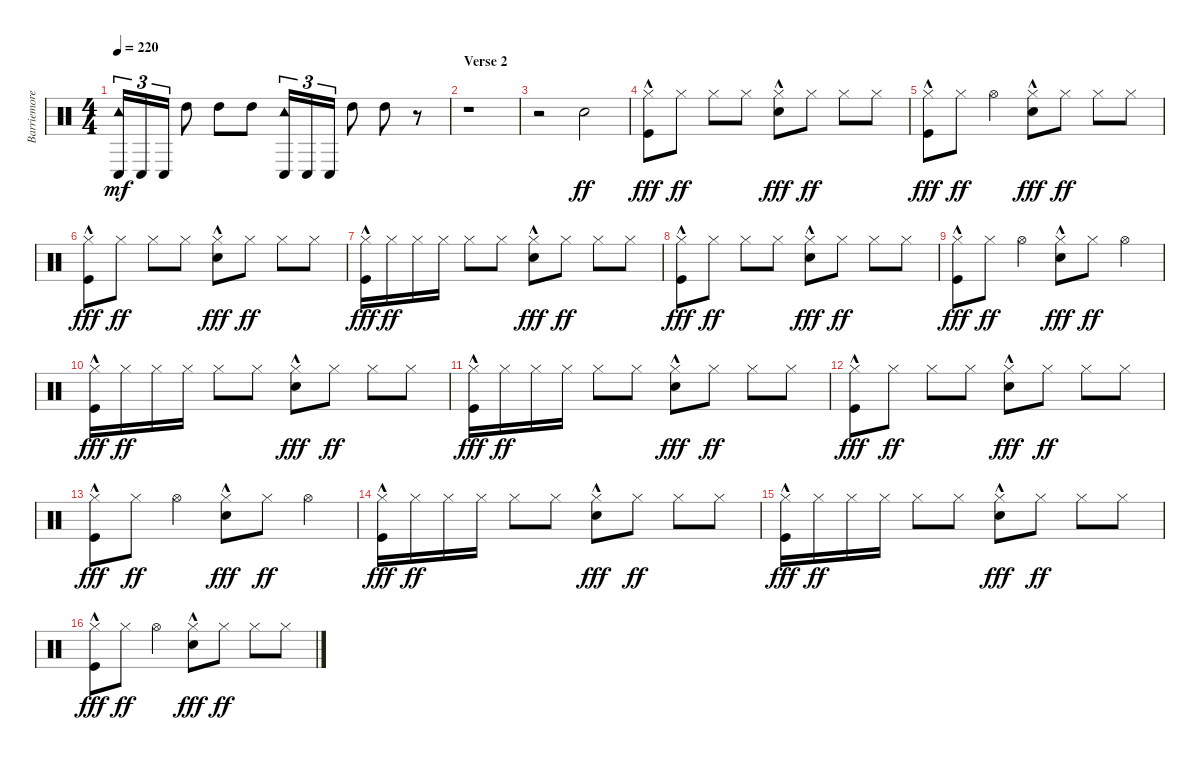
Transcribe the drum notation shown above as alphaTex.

\track ("Barriemore Barlow (Drums)" "Barriemore") {instrument percussion}
\staff {score}
\articulation defaults
\ts (4 4)
\tempo 220
\clef neutral
\ks c
("Tambourine (hit)" "Conga low (hit)").16{tu (3 2) dy mf} "Conga low (hit)".16{tu (3 2)} "Conga low (hit)".16{tu (3 2)} "High Tom (hit)".8 "High Tom (hit)".8 "High Tom (hit)".8 ("Tambourine (hit)" "Conga low (hit)").16{tu (3 2)} "Conga low (hit)".16{tu (3 2)} "Conga low (hit)".16{tu (3 2)} "High Tom (hit)".8 "High Tom (hit)".8 r.8 |
\section ("" "Verse 2")
r.1 |
r.2 "Snare (hit) 2".2{dy ff} |
("Kick (hit)"{hac} "Hi-Hat (closed)").8{dy fff} "Hi-Hat (closed)".8{dy ff} "Hi-Hat (closed)".8 "Hi-Hat (closed)".8 ("Snare (hit) 2"{hac} "Hi-Hat (closed)").8{dy fff} "Hi-Hat (closed)".8{dy ff} "Hi-Hat (closed)".8 "Hi-Hat (closed)".8 |
("Kick (hit)"{hac} "Hi-Hat (closed)").8{dy fff} "Hi-Hat (closed)".8{dy ff} "Hi-Hat (open)".4 ("Snare (hit) 2"{hac} "Hi-Hat (closed)").8{dy fff} "Hi-Hat (closed)".8{dy ff} "Hi-Hat (closed)".8 "Hi-Hat (closed)".8 |
("Kick (hit)"{hac} "Hi-Hat (closed)").8{dy fff} "Hi-Hat (closed)".8{dy ff} "Hi-Hat (closed)".8 "Hi-Hat (closed)".8 ("Snare (hit) 2"{hac} "Hi-Hat (closed)").8{dy fff} "Hi-Hat (closed)".8{dy ff} "Hi-Hat (closed)".8 "Hi-Hat (closed)".8 |
("Kick (hit)"{hac} "Hi-Hat (closed)").16{dy fff} "Hi-Hat (closed)".16{dy ff} "Hi-Hat (closed)".16 "Hi-Hat (closed)".16 "Hi-Hat (closed)".8 "Hi-Hat (closed)".8 ("Snare (hit) 2"{hac} "Hi-Hat (closed)").8{dy fff} "Hi-Hat (closed)".8{dy ff} "Hi-Hat (closed)".8 "Hi-Hat (closed)".8 |
("Kick (hit)"{hac} "Hi-Hat (closed)").8{dy fff} "Hi-Hat (closed)".8{dy ff} "Hi-Hat (closed)".8 "Hi-Hat (closed)".8 ("Snare (hit) 2"{hac} "Hi-Hat (closed)").8{dy fff} "Hi-Hat (closed)".8{dy ff} "Hi-Hat (closed)".8 "Hi-Hat (closed)".8 |
("Kick (hit)"{hac} "Hi-Hat (closed)").8{dy fff} "Hi-Hat (closed)".8{dy ff} "Hi-Hat (open)".4 ("Snare (hit) 2"{hac} "Hi-Hat (closed)").8{dy fff} "Hi-Hat (closed)".8{dy ff} "Hi-Hat (open)".4 |
("Kick (hit)"{hac} "Hi-Hat (closed)").16{dy fff} "Hi-Hat (closed)".16{dy ff} "Hi-Hat (closed)".16 "Hi-Hat (closed)".16 "Hi-Hat (closed)".8 "Hi-Hat (closed)".8 ("Snare (hit) 2"{hac} "Hi-Hat (closed)").8{dy fff} "Hi-Hat (closed)".8{dy ff} "Hi-Hat (closed)".8 "Hi-Hat (closed)".8 |
("Kick (hit)"{hac} "Hi-Hat (closed)").16{dy fff} "Hi-Hat (closed)".16{dy ff} "Hi-Hat (closed)".16 "Hi-Hat (closed)".16 "Hi-Hat (closed)".8 "Hi-Hat (closed)".8 ("Snare (hit) 2"{hac} "Hi-Hat (closed)").8{dy fff} "Hi-Hat (closed)".8{dy ff} "Hi-Hat (closed)".8 "Hi-Hat (closed)".8 |
("Kick (hit)"{hac} "Hi-Hat (closed)").8{dy fff} "Hi-Hat (closed)".8{dy ff} "Hi-Hat (closed)".8 "Hi-Hat (closed)".8 ("Snare (hit) 2"{hac} "Hi-Hat (closed)").8{dy fff} "Hi-Hat (closed)".8{dy ff} "Hi-Hat (closed)".8 "Hi-Hat (closed)".8 |
("Kick (hit)"{hac} "Hi-Hat (closed)").8{dy fff} "Hi-Hat (closed)".8{dy ff} "Hi-Hat (open)".4 ("Snare (hit) 2"{hac} "Hi-Hat (closed)").8{dy fff} "Hi-Hat (closed)".8{dy ff} "Hi-Hat (open)".4 |
("Kick (hit)"{hac} "Hi-Hat (closed)").16{dy fff} "Hi-Hat (closed)".16{dy ff} "Hi-Hat (closed)".16 "Hi-Hat (closed)".16 "Hi-Hat (closed)".8 "Hi-Hat (closed)".8 ("Snare (hit) 2"{hac} "Hi-Hat (closed)").8{dy fff} "Hi-Hat (closed)".8{dy ff} "Hi-Hat (closed)".8 "Hi-Hat (closed)".8 |
("Kick (hit)"{hac} "Hi-Hat (closed)").16{dy fff} "Hi-Hat (closed)".16{dy ff} "Hi-Hat (closed)".16 "Hi-Hat (closed)".16 "Hi-Hat (closed)".8 "Hi-Hat (closed)".8 ("Snare (hit) 2"{hac} "Hi-Hat (closed)").8{dy fff} "Hi-Hat (closed)".8{dy ff} "Hi-Hat (closed)".8 "Hi-Hat (closed)".8 |
("Kick (hit)"{hac} "Hi-Hat (closed)").8{dy fff} "Hi-Hat (closed)".8{dy ff} "Hi-Hat (open)".4 ("Snare (hit) 2"{hac} "Hi-Hat (closed)").8{dy fff} "Hi-Hat (closed)".8{dy ff} "Hi-Hat (closed)".8 "Hi-Hat (closed)".8
